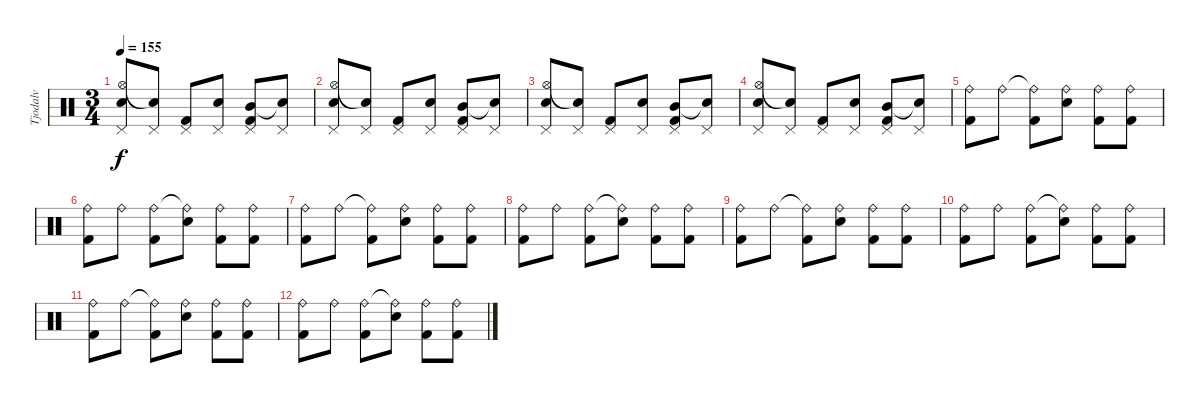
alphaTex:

\track ("Tjodalv" "Tjodalv") {instrument percussion}
\staff {score}
\articulation defaults
\ts (3 4)
\tempo 155
\clef neutral
\ks c
("Pedal Hi-Hat (hit)" "Hi-Hat (open)" "Snare (hit) 2").8{dy f} ("Pedal Hi-Hat (hit)" "Snare (hit)"{t}).8 ("Pedal Hi-Hat (hit)" "Kick (hit) 2").8 ("Pedal Hi-Hat (hit)" "Snare (hit) 2").8 ("Pedal Hi-Hat (hit)" "Mid Tom (hit)" "Kick (hit) 2").8 ("Pedal Hi-Hat (hit)" "Snare (hit)"{t}).8 |
("Pedal Hi-Hat (hit)" "Hi-Hat (open)" "Snare (hit) 2").8 ("Pedal Hi-Hat (hit)" "Snare (hit)"{t}).8 ("Pedal Hi-Hat (hit)" "Kick (hit) 2").8 ("Pedal Hi-Hat (hit)" "Snare (hit) 2").8 ("Pedal Hi-Hat (hit)" "Mid Tom (hit)" "Kick (hit) 2").8 ("Pedal Hi-Hat (hit)" "Snare (hit)"{t}).8 |
("Pedal Hi-Hat (hit)" "Hi-Hat (open)" "Snare (hit) 2").8 ("Pedal Hi-Hat (hit)" "Snare (hit)"{t}).8 ("Pedal Hi-Hat (hit)" "Kick (hit) 2").8 ("Pedal Hi-Hat (hit)" "Snare (hit) 2").8 ("Pedal Hi-Hat (hit)" "Mid Tom (hit)" "Kick (hit) 2").8 ("Pedal Hi-Hat (hit)" "Snare (hit)"{t}).8 |
("Pedal Hi-Hat (hit)" "Hi-Hat (open)" "Snare (hit) 2").8 ("Pedal Hi-Hat (hit)" "Snare (hit)"{t}).8 ("Pedal Hi-Hat (hit)" "Kick (hit) 2").8 ("Pedal Hi-Hat (hit)" "Snare (hit) 2").8 ("Pedal Hi-Hat (hit)" "Mid Tom (hit)" "Kick (hit) 2").8 ("Pedal Hi-Hat (hit)" "Snare (hit)"{t}).8 |
("Ride (bell)" "Kick (hit) 2").8 "Ride (bell)".8 ("Ride (bell)"{t} "Kick (hit) 2").8 ("Ride (bell)" "Snare (hit) 2").8 ("Ride (bell)" "Kick (hit) 2").8 ("Ride (bell)" "Kick (hit) 2").8 |
("Ride (bell)" "Kick (hit) 2").8 "Ride (bell)".8 ("Ride (bell)" "Kick (hit) 2").8 ("Ride (bell)"{t} "Snare (hit) 2").8 ("Ride (bell)" "Kick (hit) 2").8 ("Ride (bell)" "Kick (hit) 2").8 |
("Ride (bell)" "Kick (hit) 2").8 "Ride (bell)".8 ("Ride (bell)"{t} "Kick (hit) 2").8 ("Ride (bell)" "Snare (hit) 2").8 ("Ride (bell)" "Kick (hit) 2").8 ("Ride (bell)" "Kick (hit) 2").8 |
("Ride (bell)" "Kick (hit) 2").8 "Ride (bell)".8 ("Ride (bell)" "Kick (hit) 2").8 ("Ride (bell)"{t} "Snare (hit) 2").8 ("Ride (bell)" "Kick (hit) 2").8 ("Ride (bell)" "Kick (hit) 2").8 |
("Ride (bell)" "Kick (hit) 2").8 "Ride (bell)".8 ("Ride (bell)"{t} "Kick (hit) 2").8 ("Ride (bell)" "Snare (hit) 2").8 ("Ride (bell)" "Kick (hit) 2").8 ("Ride (bell)" "Kick (hit) 2").8 |
("Ride (bell)" "Kick (hit) 2").8 "Ride (bell)".8 ("Ride (bell)" "Kick (hit) 2").8 ("Ride (bell)"{t} "Snare (hit) 2").8 ("Ride (bell)" "Kick (hit) 2").8 ("Ride (bell)" "Kick (hit) 2").8 |
("Ride (bell)" "Kick (hit) 2").8 "Ride (bell)".8 ("Ride (bell)"{t} "Kick (hit) 2").8 ("Ride (bell)" "Snare (hit) 2").8 ("Ride (bell)" "Kick (hit) 2").8 ("Ride (bell)" "Kick (hit) 2").8 |
("Ride (bell)" "Kick (hit) 2").8 "Ride (bell)".8 ("Ride (bell)" "Kick (hit) 2").8 ("Ride (bell)"{t} "Snare (hit) 2").8 ("Ride (bell)" "Kick (hit) 2").8 ("Ride (bell)" "Kick (hit) 2").8
